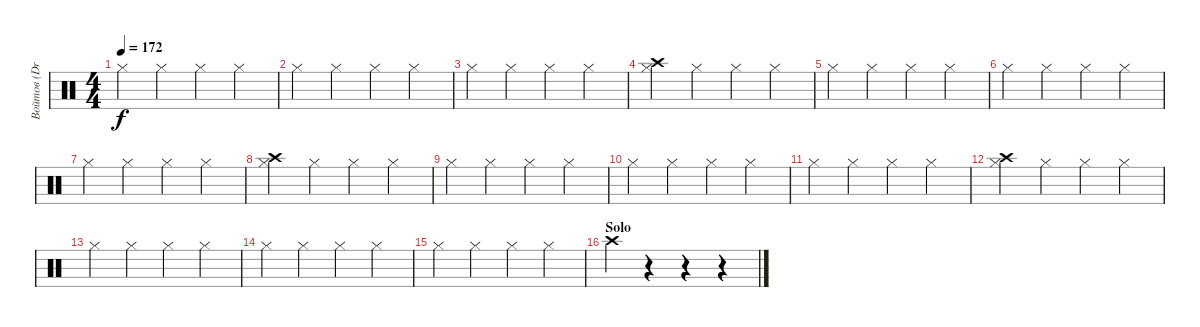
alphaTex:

\track ("Войтов (Drums)" "Войтов (Dr") {instrument percussion}
\staff {score}
\articulation defaults
\ts (4 4)
\tempo 172
\clef neutral
\ks c "Hi-Hat (closed)".4{dy f} "Hi-Hat (closed)".4 "Hi-Hat (closed)".4 "Hi-Hat (closed)".4
|
"Hi-Hat (closed)".4 "Hi-Hat (closed)".4 "Hi-Hat (closed)".4 "Hi-Hat (closed)".4 |
"Hi-Hat (closed)".4 "Hi-Hat (closed)".4 "Hi-Hat (closed)".4 "Hi-Hat (closed)".4 |
("Crash high (hit)" "Hi-Hat (closed)").4 "Hi-Hat (closed)".4 "Hi-Hat (closed)".4 "Hi-Hat (closed)".4 |
"Hi-Hat (closed)".4 "Hi-Hat (closed)".4 "Hi-Hat (closed)".4 "Hi-Hat (closed)".4 |
"Hi-Hat (closed)".4 "Hi-Hat (closed)".4 "Hi-Hat (closed)".4 "Hi-Hat (closed)".4 |
"Hi-Hat (closed)".4 "Hi-Hat (closed)".4 "Hi-Hat (closed)".4 "Hi-Hat (closed)".4 |
("Crash high (hit)" "Hi-Hat (closed)").4 "Hi-Hat (closed)".4 "Hi-Hat (closed)".4 "Hi-Hat (closed)".4 |
"Hi-Hat (closed)".4 "Hi-Hat (closed)".4 "Hi-Hat (closed)".4 "Hi-Hat (closed)".4 |
"Hi-Hat (closed)".4 "Hi-Hat (closed)".4 "Hi-Hat (closed)".4 "Hi-Hat (closed)".4 |
"Hi-Hat (closed)".4 "Hi-Hat (closed)".4 "Hi-Hat (closed)".4 "Hi-Hat (closed)".4 |
("Crash high (hit)" "Hi-Hat (closed)").4 "Hi-Hat (closed)".4 "Hi-Hat (closed)".4 "Hi-Hat (closed)".4 |
"Hi-Hat (closed)".4 "Hi-Hat (closed)".4 "Hi-Hat (closed)".4 "Hi-Hat (closed)".4 |
"Hi-Hat (closed)".4 "Hi-Hat (closed)".4 "Hi-Hat (closed)".4 "Hi-Hat (closed)".4 |
"Hi-Hat (closed)".4 "Hi-Hat (closed)".4 "Hi-Hat (closed)".4 "Hi-Hat (closed)".4 |
\section ("" "Solo")
"Crash high (hit)".4 r.4 r.4 r.4
